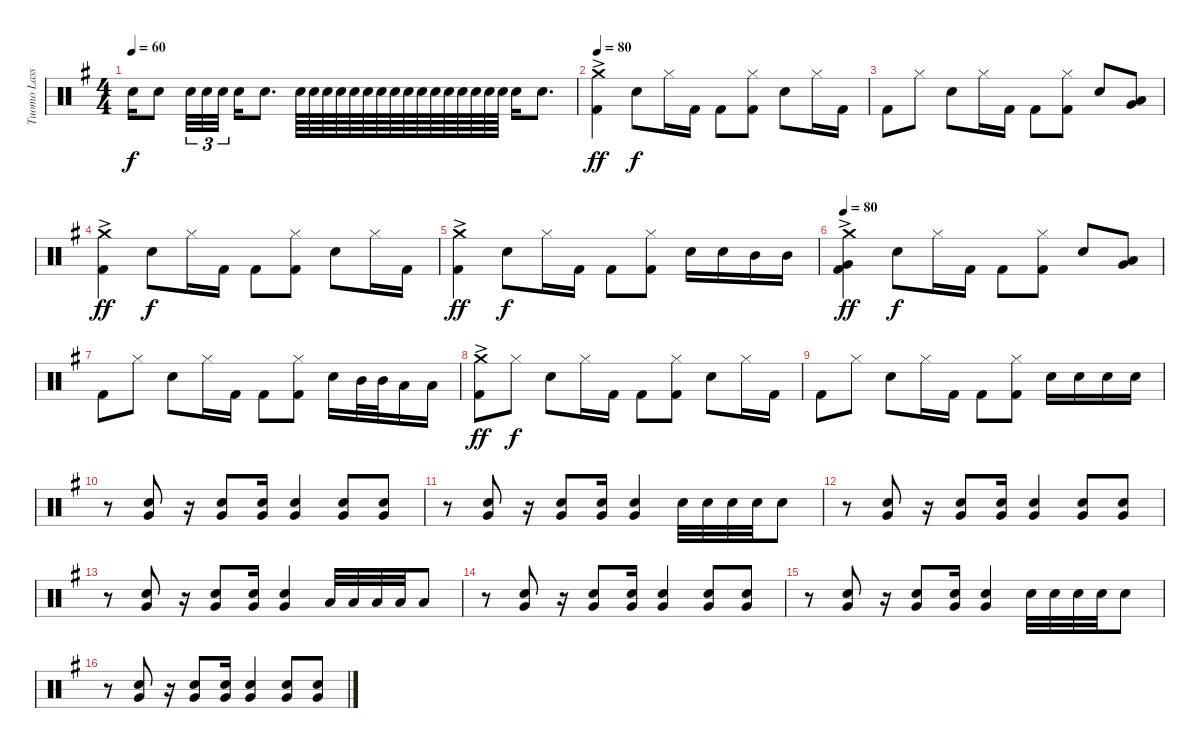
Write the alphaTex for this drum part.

\track ("Tuomo Lassila" "Tuomo Lass") {instrument percussion}
\staff {score}
\articulation defaults
\ts (4 4)
\tempo 60
\clef neutral
\ks g "Electric Snare (hit)".16{dy f} "Electric Snare (hit)".8 "Electric Snare (hit)".32{tu (3 2)} "Electric Snare (hit)".32{tu (3 2)} "Electric Snare (hit)".32{tu (3 2)} "Electric Snare (hit)".16 "Electric Snare (hit)".8{d} "Electric Snare (hit)".64 "Electric Snare (hit)".64 "Electric Snare (hit)".64 "Electric Snare (hit)".64 "Electric Snare (hit)".64 "Electric Snare (hit)".64 "Electric Snare (hit)".64 "Electric Snare (hit)".64 "Electric Snare (hit)".64 "Electric Snare (hit)".64 "Electric Snare (hit)".64 "Electric Snare (hit)".64 "Electric Snare (hit)".64 "Electric Snare (hit)".64 "Electric Snare (hit)".64 "Electric Snare (hit)".64 "Electric Snare (hit)".16 "Electric Snare (hit)".8{d}
|
\tempo 80
("Crash medium (hit)"{ac} "Kick (hit) 2"{ac}).4{dy ff} "Electric Snare (hit)".8{dy f} "Hi-Hat (closed)".16 "Kick (hit) 2".16 "Kick (hit) 2".8 ("Hi-Hat (closed)" "Kick (hit) 2").8 "Electric Snare (hit)".8 "Hi-Hat (closed)".16 "Kick (hit) 2".16 |
"Kick (hit) 2".8 "Hi-Hat (closed)".8 "Electric Snare (hit)".8 "Hi-Hat (closed)".16 "Kick (hit) 2".16 "Kick (hit) 2".8 ("Hi-Hat (closed)" "Kick (hit) 2").8 "Electric Snare (hit)".8 ("Very Low Tom (hit)" "Low Tom (hit)").8 |
("Crash medium (hit)"{ac} "Kick (hit) 2"{ac}).4{dy ff} "Electric Snare (hit)".8{dy f} "Hi-Hat (closed)".16 "Kick (hit) 2".16 "Kick (hit) 2".8 ("Hi-Hat (closed)" "Kick (hit) 2").8 "Electric Snare (hit)".8 "Hi-Hat (closed)".16 "Kick (hit) 2".16 |
("Crash medium (hit)"{ac} "Kick (hit) 2"{ac}).4{dy ff} "Electric Snare (hit)".8{dy f} "Hi-Hat (closed)".16 "Kick (hit) 2".16 "Kick (hit) 2".8 ("Hi-Hat (closed)" "Kick (hit) 2").8 "Electric Snare (hit)".16 "Electric Snare (hit)".16 "Mid Tom (hit)".16 "Mid Tom (hit)".16 |
\tempo 80
("Crash medium (hit)"{ac} "Kick (hit) 2"{ac} "Very Low Tom (hit)").4{dy ff} "Electric Snare (hit)".8{dy f} "Hi-Hat (closed)".16 "Kick (hit) 2".16 "Kick (hit) 2".8 ("Hi-Hat (closed)" "Kick (hit) 2").8 "Electric Snare (hit)".8 ("Very Low Tom (hit)" "Low Tom (hit)").8 |
"Kick (hit) 2".8 "Hi-Hat (closed)".8 "Electric Snare (hit)".8 "Hi-Hat (closed)".16 "Kick (hit) 2".16 "Kick (hit) 2".8 ("Hi-Hat (closed)" "Kick (hit) 2").8 "Electric Snare (hit)".16 "Mid Tom (hit)".32 "Mid Tom (hit)".32 "Low Tom (hit)".16 "Low Tom (hit)".16 |
("Crash medium (hit)"{ac} "Kick (hit) 2"{ac}).8{dy ff} "Hi-Hat (closed)".8{dy f} "Electric Snare (hit)".8 "Hi-Hat (closed)".16 "Kick (hit) 2".16 "Kick (hit) 2".8 ("Hi-Hat (closed)" "Kick (hit) 2").8 "Electric Snare (hit)".8 "Hi-Hat (closed)".16 "Kick (hit) 2".16 |
"Kick (hit) 2".8 "Hi-Hat (closed)".8 "Electric Snare (hit)".8 "Hi-Hat (closed)".16 "Kick (hit) 2".16 "Kick (hit) 2".8 ("Hi-Hat (closed)" "Kick (hit) 2").8 "Electric Snare (hit)".16{volume 0} "Electric Snare (hit)".16 "Electric Snare (hit)".16 "Electric Snare (hit)".16 |
r.8{volume 16} ("Electric Snare (hit)" "Very Low Tom (hit)").8 r.16 ("Electric Snare (hit)" "Very Low Tom (hit)").8 ("Electric Snare (hit)" "Very Low Tom (hit)").16 ("Electric Snare (hit)" "Very Low Tom (hit)").4 ("Electric Snare (hit)" "Very Low Tom (hit)").8 ("Electric Snare (hit)" "Very Low Tom (hit)").8 |
r.8{volume 16} ("Electric Snare (hit)" "Very Low Tom (hit)").8 r.16 ("Electric Snare (hit)" "Very Low Tom (hit)").8 ("Electric Snare (hit)" "Very Low Tom (hit)").16 ("Electric Snare (hit)" "Very Low Tom (hit)").4 "Electric Snare (hit)".32 "Electric Snare (hit)".32 "Electric Snare (hit)".32 "Electric Snare (hit)".32 "Electric Snare (hit)".8 |
r.8{volume 16} ("Electric Snare (hit)" "Very Low Tom (hit)").8 r.16 ("Electric Snare (hit)" "Very Low Tom (hit)").8 ("Electric Snare (hit)" "Very Low Tom (hit)").16 ("Electric Snare (hit)" "Very Low Tom (hit)").4 ("Electric Snare (hit)" "Very Low Tom (hit)").8 ("Electric Snare (hit)" "Very Low Tom (hit)").8 |
r.8{volume 16} ("Electric Snare (hit)" "Very Low Tom (hit)").8 r.16 ("Electric Snare (hit)" "Very Low Tom (hit)").8 ("Electric Snare (hit)" "Very Low Tom (hit)").16 ("Electric Snare (hit)" "Very Low Tom (hit)").4 "Low Tom (hit)".32 "Low Tom (hit)".32 "Low Tom (hit)".32 "Low Tom (hit)".32 "Low Tom (hit)".8 |
r.8{volume 16} ("Electric Snare (hit)" "Very Low Tom (hit)").8 r.16 ("Electric Snare (hit)" "Very Low Tom (hit)").8 ("Electric Snare (hit)" "Very Low Tom (hit)").16 ("Electric Snare (hit)" "Very Low Tom (hit)").4 ("Electric Snare (hit)" "Very Low Tom (hit)").8 ("Electric Snare (hit)" "Very Low Tom (hit)").8 |
r.8{volume 16} ("Electric Snare (hit)" "Very Low Tom (hit)").8 r.16 ("Electric Snare (hit)" "Very Low Tom (hit)").8 ("Electric Snare (hit)" "Very Low Tom (hit)").16 ("Electric Snare (hit)" "Very Low Tom (hit)").4 "Electric Snare (hit)".32 "Electric Snare (hit)".32 "Electric Snare (hit)".32 "Electric Snare (hit)".32 "Electric Snare (hit)".8 |
r.8{volume 16} ("Electric Snare (hit)" "Very Low Tom (hit)").8 r.16 ("Electric Snare (hit)" "Very Low Tom (hit)").8 ("Electric Snare (hit)" "Very Low Tom (hit)").16 ("Electric Snare (hit)" "Very Low Tom (hit)").4 ("Electric Snare (hit)" "Very Low Tom (hit)").8 ("Electric Snare (hit)" "Very Low Tom (hit)").8
